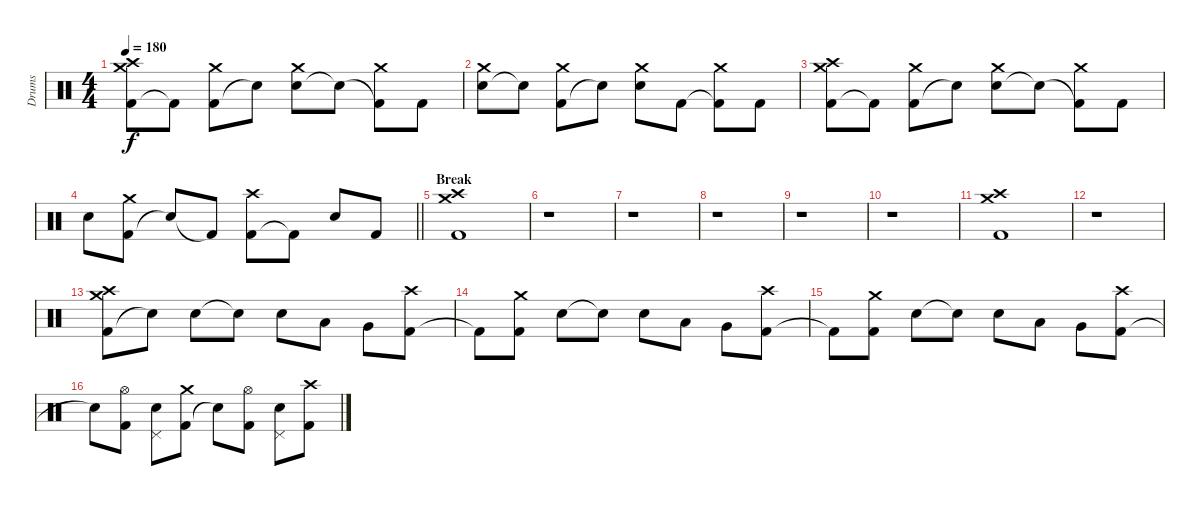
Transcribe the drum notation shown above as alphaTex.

\track ("Drums" "Drums") {instrument percussion}
\staff {score}
\articulation defaults
\ts (4 4)
\tempo 180
\clef neutral
\ks c
("Kick (hit) 2" "Crash medium (hit)" "Crash high (hit)").8{dy f} "Kick (hit) 2"{t}.8 ("Kick (hit) 2" "Crash medium (hit)").8 "Snare (hit)"{t}.8 ("Electric Snare (hit)" "Crash medium (hit)").8 "Snare (hit)"{t}.8 ("Kick (hit) 2"{t} "Crash medium (hit)").8 "Kick (hit) 2".8 |
("Electric Snare (hit)" "Crash medium (hit)").8 "Snare (hit)"{t}.8 ("Kick (hit) 2" "Crash medium (hit)").8 "Snare (hit)"{t}.8 ("Electric Snare (hit)" "Crash medium (hit)").8 "Kick (hit) 2".8 ("Kick (hit) 2"{t} "Crash medium (hit)").8 "Kick (hit) 2".8 |
("Kick (hit) 2" "Crash medium (hit)" "Crash high (hit)").8 "Kick (hit) 2"{t}.8 ("Kick (hit) 2" "Crash medium (hit)").8 "Snare (hit)"{t}.8 ("Electric Snare (hit)" "Crash medium (hit)").8 "Snare (hit)"{t}.8 ("Kick (hit) 2"{t} "Crash medium (hit)").8 "Kick (hit) 2".8 |
\barLineRight lightlight "Electric Snare (hit)".8
("Kick (hit) 2" "Crash medium (hit)").8 "Snare (hit)"{t}.8 "Kick (hit) 2"{t}.8 ("Kick (hit) 2" "Crash high (hit)").8 "Kick (hit) 2"{t}.8 "Electric Snare (hit)".8 "Kick (hit) 2".8 |
\section ("" "Break")
("Kick (hit) 2" "Crash medium (hit)" "Crash high (hit)").1 |
r.1 |
r.1 |
r.1 |
r.1 |
r.1 |
("Kick (hit) 2" "Crash medium (hit)" "Crash high (hit)").1 |
r.1 |
("Kick (hit) 2" "Crash medium (hit)" "Crash high (hit)").8 "Snare (hit)"{t}.8 "Electric Snare (hit)".8 "Snare (hit)"{t}.8 "Electric Snare (hit)".8 "Low Tom (hit)".8 "Very Low Tom (hit)".8 ("Kick (hit) 2" "Crash high (hit)").8 |
"Kick (hit) 2"{t}.8 ("Kick (hit) 2" "Crash medium (hit)").8 "Electric Snare (hit)".8 "Snare (hit)"{t}.8 "Electric Snare (hit)".8 "Low Tom (hit)".8 "Very Low Tom (hit)".8 ("Kick (hit) 2" "Crash high (hit)").8 |
"Kick (hit) 2"{t}.8 ("Kick (hit) 2" "Crash medium (hit)").8 "Electric Snare (hit)".8 "Snare (hit)"{t}.8 "Electric Snare (hit)".8 "Low Tom (hit)".8 "Very Low Tom (hit)".8 ("Kick (hit) 2" "Crash high (hit)").8 |
"Snare (hit)"{t}.8 ("Kick (hit) 2" "Hi-Hat (open)").8 ("Electric Snare (hit)" "Pedal Hi-Hat (hit)").8 ("Kick (hit) 2" "Crash medium (hit)").8 "Snare (hit)"{t}.8 ("Kick (hit) 2" "Hi-Hat (open)").8 ("Electric Snare (hit)" "Pedal Hi-Hat (hit)").8 ("Kick (hit) 2" "Crash high (hit)").8
